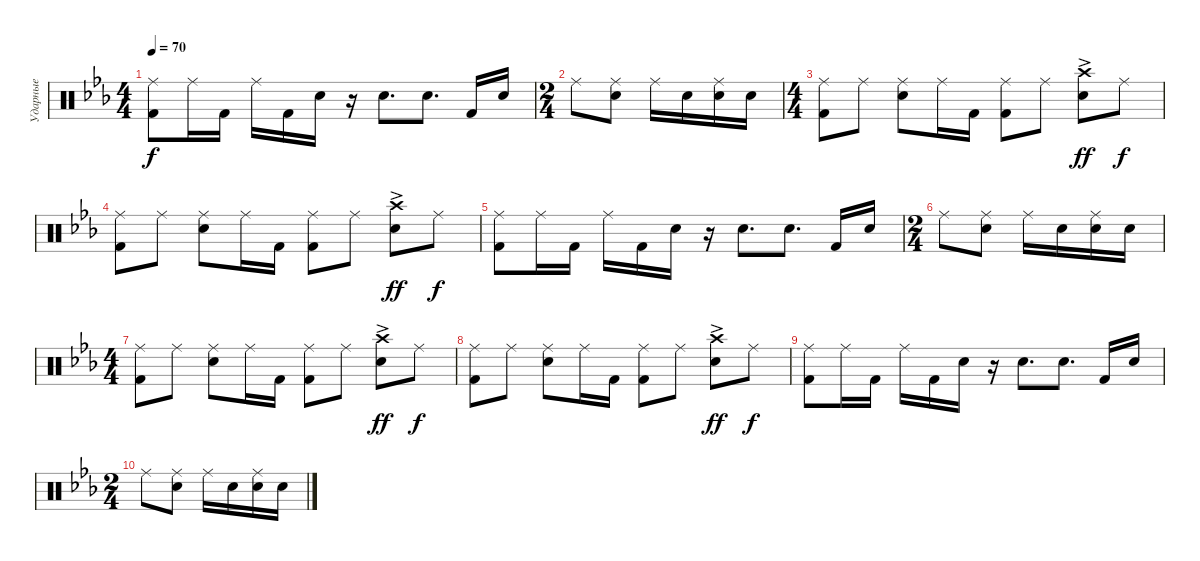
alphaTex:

\track ("Ударные" "Ударные") {instrument percussion}
\staff {score}
\articulation defaults
\ts (4 4)
\tempo 70
\clef neutral
\ks eb
("Kick (hit) 2" "Ride (middle)").8{dy f} "Ride (middle)".16 "Kick (hit) 2".16 "Ride (middle)".16 "Kick (hit) 2".16 "Snare (hit) 2".16 r.16 "Snare (hit) 2".8{d} "Snare (hit) 2".8{d} "Kick (hit) 2".16 "Snare (hit) 2".16 |
\ts (2 4)
"Ride (middle)".8 ("Snare (hit) 2" "Ride (middle)").8 "Ride (middle)".16 "Snare (hit) 2".16 ("Snare (hit) 2" "Ride (middle)").16 "Snare (hit) 2".16 |
\ts (4 4)
("Kick (hit) 2" "Ride (middle)").8 "Ride (middle)".8 ("Snare (hit) 2" "Ride (middle)").8 "Ride (middle)".16 "Kick (hit) 2".16 ("Kick (hit) 2" "Ride (middle)").8 "Ride (middle)".8 ("Snare (hit) 2" "Crash high (hit)"{ac}).8{dy ff} "Ride (middle)".8{dy f} |
("Kick (hit) 2" "Ride (middle)").8 "Ride (middle)".8 ("Snare (hit) 2" "Ride (middle)").8 "Ride (middle)".16 "Kick (hit) 2".16 ("Kick (hit) 2" "Ride (middle)").8 "Ride (middle)".8 ("Snare (hit) 2" "Crash high (hit)"{ac}).8{dy ff} "Ride (middle)".8{dy f} |
("Kick (hit) 2" "Ride (middle)").8 "Ride (middle)".16 "Kick (hit) 2".16 "Ride (middle)".16 "Kick (hit) 2".16 "Snare (hit) 2".16 r.16 "Snare (hit) 2".8{d} "Snare (hit) 2".8{d} "Kick (hit) 2".16 "Snare (hit) 2".16 |
\ts (2 4)
"Ride (middle)".8 ("Snare (hit) 2" "Ride (middle)").8 "Ride (middle)".16 "Snare (hit) 2".16 ("Snare (hit) 2" "Ride (middle)").16 "Snare (hit) 2".16 |
\ts (4 4)
("Kick (hit) 2" "Ride (middle)").8 "Ride (middle)".8 ("Snare (hit) 2" "Ride (middle)").8 "Ride (middle)".16 "Kick (hit) 2".16 ("Kick (hit) 2" "Ride (middle)").8 "Ride (middle)".8 ("Snare (hit) 2" "Crash high (hit)"{ac}).8{dy ff} "Ride (middle)".8{dy f} |
("Kick (hit) 2" "Ride (middle)").8 "Ride (middle)".8 ("Snare (hit) 2" "Ride (middle)").8 "Ride (middle)".16 "Kick (hit) 2".16 ("Kick (hit) 2" "Ride (middle)").8 "Ride (middle)".8 ("Snare (hit) 2" "Crash high (hit)"{ac}).8{dy ff} "Ride (middle)".8{dy f} |
("Kick (hit) 2" "Ride (middle)").8 "Ride (middle)".16 "Kick (hit) 2".16 "Ride (middle)".16 "Kick (hit) 2".16 "Snare (hit) 2".16 r.16 "Snare (hit) 2".8{d} "Snare (hit) 2".8{d} "Kick (hit) 2".16 "Snare (hit) 2".16 |
\ts (2 4)
"Ride (middle)".8 ("Snare (hit) 2" "Ride (middle)").8 "Ride (middle)".16 "Snare (hit) 2".16 ("Snare (hit) 2" "Ride (middle)").16 "Snare (hit) 2".16
